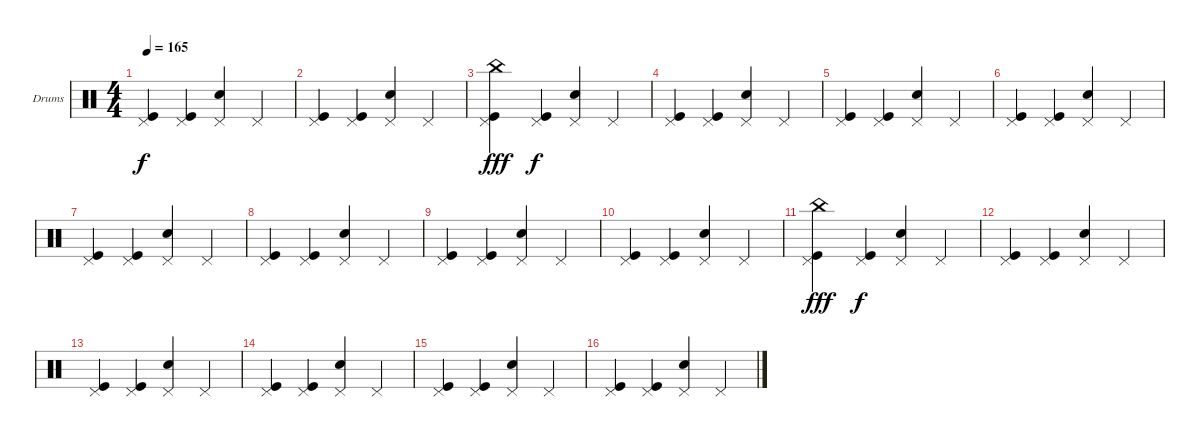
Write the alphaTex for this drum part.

\bracketExtendMode groupsimilarinstruments
\firstSystemTrackNameOrientation horizontal
\otherSystemsTrackNameOrientation horizontal
\track ("Drumkit" "Drums") {instrument percussion}
\staff {score}
\articulation defaults
\ts (4 4)
\tempo 165
\clef neutral
\ks c
("Pedal Hi-Hat (hit)" "Kick (hit)").4{dy f} ("Pedal Hi-Hat (hit)" "Kick (hit)").4 ("Pedal Hi-Hat (hit)" "Snare (hit) 2").4 "Pedal Hi-Hat (hit)".4 |
("Pedal Hi-Hat (hit)" "Kick (hit)").4 ("Pedal Hi-Hat (hit)" "Kick (hit)").4 ("Pedal Hi-Hat (hit)" "Snare (hit) 2").4 "Pedal Hi-Hat (hit)".4 |
("Pedal Hi-Hat (hit)" "Kick (hit)" "China (hit)").4{dy fff} ("Pedal Hi-Hat (hit)" "Kick (hit)").4{dy f} ("Pedal Hi-Hat (hit)" "Snare (hit) 2").4 "Pedal Hi-Hat (hit)".4 |
("Pedal Hi-Hat (hit)" "Kick (hit)").4 ("Pedal Hi-Hat (hit)" "Kick (hit)").4 ("Pedal Hi-Hat (hit)" "Snare (hit) 2").4 "Pedal Hi-Hat (hit)".4 |
("Pedal Hi-Hat (hit)" "Kick (hit)").4 ("Pedal Hi-Hat (hit)" "Kick (hit)").4 ("Pedal Hi-Hat (hit)" "Snare (hit) 2").4 "Pedal Hi-Hat (hit)".4 |
("Pedal Hi-Hat (hit)" "Kick (hit)").4 ("Pedal Hi-Hat (hit)" "Kick (hit)").4 ("Pedal Hi-Hat (hit)" "Snare (hit) 2").4 "Pedal Hi-Hat (hit)".4 |
("Pedal Hi-Hat (hit)" "Kick (hit)").4 ("Pedal Hi-Hat (hit)" "Kick (hit)").4 ("Pedal Hi-Hat (hit)" "Snare (hit) 2").4 "Pedal Hi-Hat (hit)".4 |
("Pedal Hi-Hat (hit)" "Kick (hit)").4 ("Pedal Hi-Hat (hit)" "Kick (hit)").4 ("Pedal Hi-Hat (hit)" "Snare (hit) 2").4 "Pedal Hi-Hat (hit)".4 |
("Pedal Hi-Hat (hit)" "Kick (hit)").4 ("Pedal Hi-Hat (hit)" "Kick (hit)").4 ("Pedal Hi-Hat (hit)" "Snare (hit) 2").4 "Pedal Hi-Hat (hit)".4 |
("Pedal Hi-Hat (hit)" "Kick (hit)").4 ("Pedal Hi-Hat (hit)" "Kick (hit)").4 ("Pedal Hi-Hat (hit)" "Snare (hit) 2").4 "Pedal Hi-Hat (hit)".4 |
("Pedal Hi-Hat (hit)" "Kick (hit)" "China (hit)").4{dy fff} ("Pedal Hi-Hat (hit)" "Kick (hit)").4{dy f} ("Pedal Hi-Hat (hit)" "Snare (hit) 2").4 "Pedal Hi-Hat (hit)".4 |
("Pedal Hi-Hat (hit)" "Kick (hit)").4 ("Pedal Hi-Hat (hit)" "Kick (hit)").4 ("Pedal Hi-Hat (hit)" "Snare (hit) 2").4 "Pedal Hi-Hat (hit)".4 |
("Pedal Hi-Hat (hit)" "Kick (hit)").4 ("Pedal Hi-Hat (hit)" "Kick (hit)").4 ("Pedal Hi-Hat (hit)" "Snare (hit) 2").4 "Pedal Hi-Hat (hit)".4 |
("Pedal Hi-Hat (hit)" "Kick (hit)").4 ("Pedal Hi-Hat (hit)" "Kick (hit)").4 ("Pedal Hi-Hat (hit)" "Snare (hit) 2").4 "Pedal Hi-Hat (hit)".4 |
("Pedal Hi-Hat (hit)" "Kick (hit)").4 ("Pedal Hi-Hat (hit)" "Kick (hit)").4 ("Pedal Hi-Hat (hit)" "Snare (hit) 2").4 "Pedal Hi-Hat (hit)".4 |
("Pedal Hi-Hat (hit)" "Kick (hit)").4 ("Pedal Hi-Hat (hit)" "Kick (hit)").4 ("Pedal Hi-Hat (hit)" "Snare (hit) 2").4 "Pedal Hi-Hat (hit)".4
